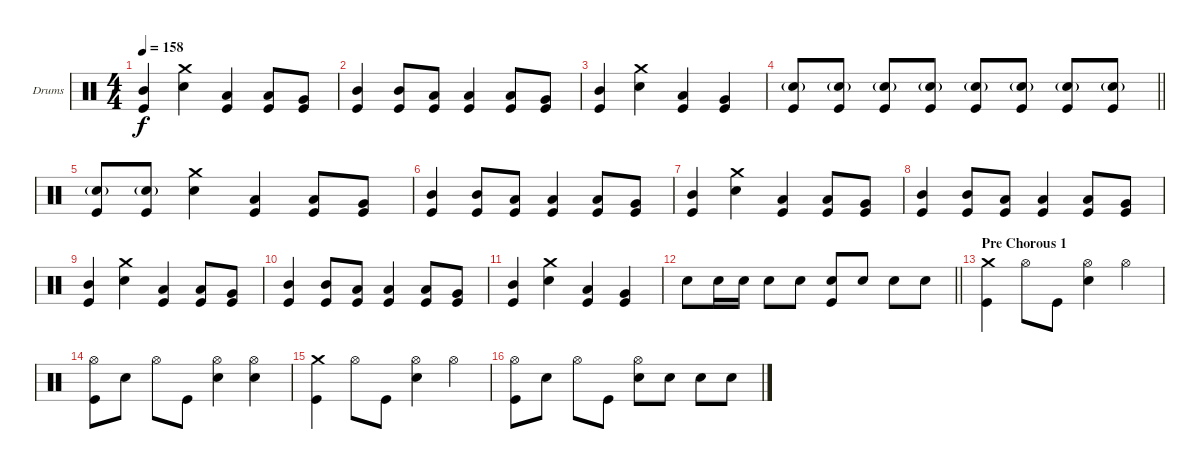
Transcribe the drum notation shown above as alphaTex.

\bracketExtendMode groupsimilarinstruments
\firstSystemTrackNameOrientation horizontal
\otherSystemsTrackNameOrientation horizontal
\track ("Drumkit" "Drums") {instrument percussion}
\staff {score}
\articulation defaults
\ts (4 4)
\tempo 158
\clef neutral
\ks c
("Kick (hit)" "Mid Tom (hit)").4{dy f} ("Crash medium (hit)" "Snare (hit) 2").4 ("Kick (hit)" "Low Tom (hit)").4 ("Kick (hit)" "Low Tom (hit)").8 ("Kick (hit)" "Very Low Tom (hit)").8 |
("Kick (hit)" "Mid Tom (hit)").4 ("Kick (hit)" "Mid Tom (hit)").8 ("Kick (hit)" "Low Tom (hit)").8 ("Kick (hit)" "Low Tom (hit)").4 ("Kick (hit)" "Low Tom (hit)").8 ("Kick (hit)" "Very Low Tom (hit)").8 |
("Kick (hit)" "Mid Tom (hit)").4 ("Crash medium (hit)" "Snare (hit) 2").4 ("Kick (hit)" "Low Tom (hit)").4 ("Kick (hit)" "Very Low Tom (hit)").4 |
\barLineRight lightlight
("Snare (hit) 2"{g} "Kick (hit)").8 ("Snare (hit) 2"{g} "Kick (hit)").8 ("Snare (hit) 2"{g} "Kick (hit)").8 ("Snare (hit) 2"{g} "Kick (hit)").8 ("Snare (hit) 2"{g} "Kick (hit)").8 ("Snare (hit) 2"{g} "Kick (hit)").8 ("Snare (hit) 2"{g} "Kick (hit)").8 ("Snare (hit) 2"{g} "Kick (hit)").8 |
\section ("" "")
("Snare (hit) 2"{g} "Kick (hit)").8 ("Snare (hit) 2"{g} "Kick (hit)").8 ("Crash medium (hit)" "Snare (hit) 2").4 ("Kick (hit)" "Low Tom (hit)").4 ("Kick (hit)" "Low Tom (hit)").8 ("Kick (hit)" "Very Low Tom (hit)").8 |
("Kick (hit)" "Mid Tom (hit)").4 ("Kick (hit)" "Mid Tom (hit)").8 ("Kick (hit)" "Low Tom (hit)").8 ("Kick (hit)" "Low Tom (hit)").4 ("Kick (hit)" "Low Tom (hit)").8 ("Kick (hit)" "Very Low Tom (hit)").8 |
("Kick (hit)" "Mid Tom (hit)").4 ("Crash medium (hit)" "Snare (hit) 2").4 ("Kick (hit)" "Low Tom (hit)").4 ("Kick (hit)" "Low Tom (hit)").8 ("Kick (hit)" "Very Low Tom (hit)").8 |
("Kick (hit)" "Mid Tom (hit)").4 ("Kick (hit)" "Mid Tom (hit)").8 ("Kick (hit)" "Low Tom (hit)").8 ("Kick (hit)" "Low Tom (hit)").4 ("Kick (hit)" "Low Tom (hit)").8 ("Kick (hit)" "Very Low Tom (hit)").8 |
("Kick (hit)" "Mid Tom (hit)").4 ("Crash medium (hit)" "Snare (hit) 2").4 ("Kick (hit)" "Low Tom (hit)").4 ("Kick (hit)" "Low Tom (hit)").8 ("Kick (hit)" "Very Low Tom (hit)").8 |
("Kick (hit)" "Mid Tom (hit)").4 ("Kick (hit)" "Mid Tom (hit)").8 ("Kick (hit)" "Low Tom (hit)").8 ("Kick (hit)" "Low Tom (hit)").4 ("Kick (hit)" "Low Tom (hit)").8 ("Kick (hit)" "Very Low Tom (hit)").8 |
("Kick (hit)" "Mid Tom (hit)").4 ("Crash medium (hit)" "Snare (hit) 2").4 ("Kick (hit)" "Low Tom (hit)").4 ("Kick (hit)" "Very Low Tom (hit)").4 |
\barLineRight lightlight "Snare (hit) 2".8 "Snare (hit) 2".16 "Snare (hit) 2".16 "Snare (hit) 2".8 "Snare (hit) 2".8
("Snare (hit) 2" "Kick (hit)").8 "Snare (hit) 2".8 "Snare (hit) 2".8 "Snare (hit) 2".8 |
\section ("" "Pre Chorous 1")
("Crash medium (hit)" "Kick (hit)").4 "Hi-Hat (open)".8 "Kick (hit)".8 ("Hi-Hat (open)" "Snare (hit) 2").4 "Hi-Hat (open)".4 |
("Hi-Hat (open)" "Kick (hit)").8 "Snare (hit) 2".8 "Hi-Hat (open)".8 "Kick (hit)".8 ("Hi-Hat (open)" "Snare (hit) 2").4 ("Hi-Hat (open)" "Snare (hit) 2").4 |
("Crash medium (hit)" "Kick (hit)").4 "Hi-Hat (open)".8 "Kick (hit)".8 ("Hi-Hat (open)" "Snare (hit) 2").4 "Hi-Hat (open)".4 |
("Hi-Hat (open)" "Kick (hit)").8 "Snare (hit) 2".8 "Hi-Hat (open)".8 "Kick (hit)".8 ("Hi-Hat (open)" "Snare (hit) 2").8 "Snare (hit) 2".8 "Snare (hit) 2".8 "Snare (hit) 2".8
